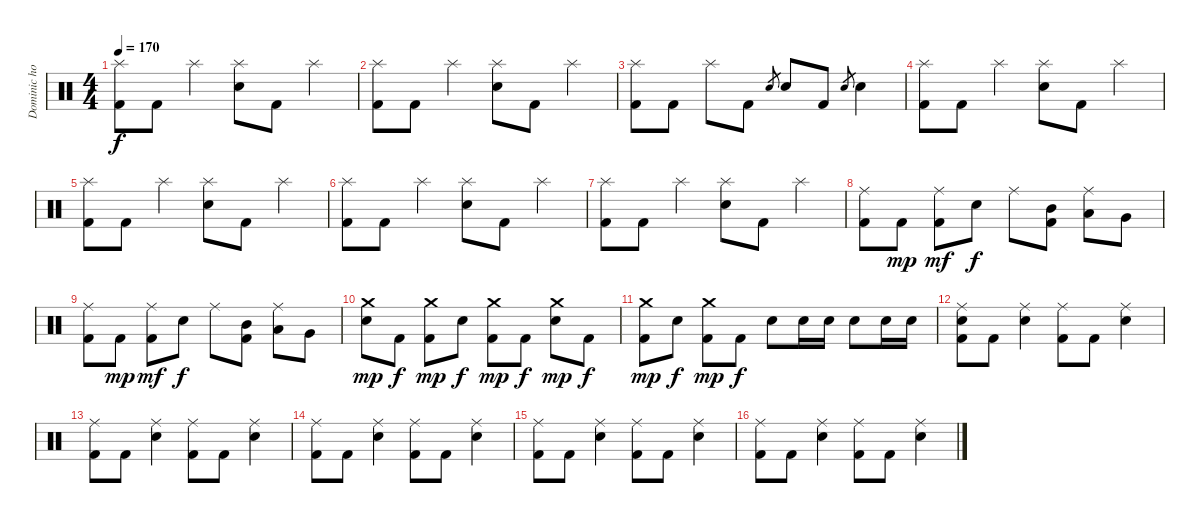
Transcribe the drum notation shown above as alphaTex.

\track ("Dominic howard" "Dominic ho") {instrument percussion}
\staff {score}
\articulation defaults
\ts (4 4)
\tempo 170
\clef neutral
\ks c
("Splash (hit)" "Kick (hit) 2").8{dy f} "Kick (hit) 2".8 "Splash (hit)".4 ("Splash (hit)" "Electric Snare (hit)").8 "Kick (hit) 2".8 "Splash (hit)".4 |
("Splash (hit)" "Kick (hit) 2").8 "Kick (hit) 2".8 "Splash (hit)".4 ("Splash (hit)" "Electric Snare (hit)").8 "Kick (hit) 2".8 "Splash (hit)".4 |
("Splash (hit)" "Kick (hit) 2").8 "Kick (hit) 2".8 "Splash (hit)".8 "Kick (hit) 2".8 "Electric Snare (hit)".8{gr} "Electric Snare (hit)".8 "Kick (hit) 2".8 "Electric Snare (hit)".8{gr} "Electric Snare (hit)".4 |
("Splash (hit)" "Kick (hit) 2").8 "Kick (hit) 2".8 "Splash (hit)".4 ("Splash (hit)" "Electric Snare (hit)").8 "Kick (hit) 2".8 "Splash (hit)".4 |
("Splash (hit)" "Kick (hit) 2").8 "Kick (hit) 2".8 "Splash (hit)".4 ("Splash (hit)" "Electric Snare (hit)").8 "Kick (hit) 2".8 "Splash (hit)".4 |
("Splash (hit)" "Kick (hit) 2").8 "Kick (hit) 2".8 "Splash (hit)".4 ("Splash (hit)" "Electric Snare (hit)").8 "Kick (hit) 2".8 "Splash (hit)".4 |
("Splash (hit)" "Kick (hit) 2").8 "Kick (hit) 2".8 "Splash (hit)".4 ("Splash (hit)" "Electric Snare (hit)").8 "Kick (hit) 2".8 "Splash (hit)".4 |
("Ride (middle)" "Kick (hit) 2").8 "Kick (hit) 2".8{dy mp} ("Ride (middle)" "Kick (hit) 2").8{dy mf} "Electric Snare (hit)".8{dy f} "Ride (middle)".8 ("Mid Tom (hit)" "Kick (hit) 2").8 ("Ride (middle)" "Low Tom (hit)").8 "Very Low Tom (hit)".8 |
("Ride (middle)" "Kick (hit) 2").8 "Kick (hit) 2".8{dy mp} ("Ride (middle)" "Kick (hit) 2").8{dy mf} "Electric Snare (hit)".8{dy f} "Ride (middle)".8 ("Mid Tom (hit)" "Kick (hit) 2").8 ("Ride (middle)" "Low Tom (hit)").8 "Very Low Tom (hit)".8 |
("Crash medium (hit)" "Electric Snare (hit)").8{dy mp} "Kick (hit) 2".8{dy f} ("Crash medium (hit)" "Kick (hit) 2").8{dy mp} "Electric Snare (hit)".8{dy f} ("Crash medium (hit)" "Kick (hit) 2").8{dy mp} "Kick (hit) 2".8{dy f} ("Crash medium (hit)" "Electric Snare (hit)").8{dy mp} "Kick (hit) 2".8{dy f} |
("Crash medium (hit)" "Kick (hit) 2").8{dy mp} "Electric Snare (hit)".8{dy f} ("Crash medium (hit)" "Kick (hit) 2").8{dy mp} "Kick (hit) 2".8{dy f} "Electric Snare (hit)".8 "Electric Snare (hit)".16 "Electric Snare (hit)".16 "Electric Snare (hit)".8 "Electric Snare (hit)".16 "Electric Snare (hit)".16 |
("Ride (middle)" "Electric Snare (hit)" "Kick (hit) 2").8 "Kick (hit) 2".8 ("Ride (middle)" "Electric Snare (hit)").4 ("Ride (middle)" "Kick (hit) 2").8 "Kick (hit) 2".8 ("Ride (middle)" "Electric Snare (hit)").4 |
("Ride (middle)" "Kick (hit) 2").8 "Kick (hit) 2".8 ("Ride (middle)" "Electric Snare (hit)").4 ("Ride (middle)" "Kick (hit) 2").8 "Kick (hit) 2".8 ("Ride (middle)" "Electric Snare (hit)").4 |
("Ride (middle)" "Kick (hit) 2").8 "Kick (hit) 2".8 ("Ride (middle)" "Electric Snare (hit)").4 ("Ride (middle)" "Kick (hit) 2").8 "Kick (hit) 2".8 ("Ride (middle)" "Electric Snare (hit)").4 |
("Ride (middle)" "Kick (hit) 2").8 "Kick (hit) 2".8 ("Ride (middle)" "Electric Snare (hit)").4 ("Ride (middle)" "Kick (hit) 2").8 "Kick (hit) 2".8 ("Ride (middle)" "Electric Snare (hit)").4 |
("Ride (middle)" "Kick (hit) 2").8 "Kick (hit) 2".8 ("Ride (middle)" "Electric Snare (hit)").4 ("Ride (middle)" "Kick (hit) 2").8 "Kick (hit) 2".8 ("Ride (middle)" "Electric Snare (hit)").4
